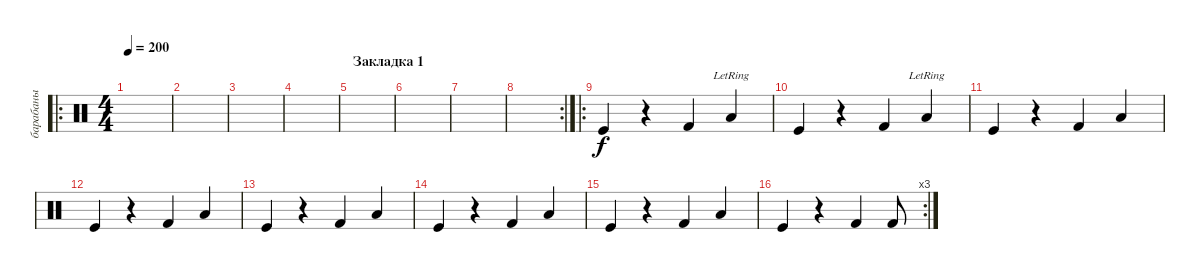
\track ("барабаны" "барабаны") {instrument percussion}
\staff {score}
\articulation defaults
\ro
\ts (4 4)
\tempo 200
\clef neutral
\ks c
|
|
|
|
\section ("" "Закладка 1")
|
|
|
\rc 2
|
\ro "Kick (hit)".4
r.4 "Kick (hit) 2".4 "Low Tom (hit)"{lr}.4 |
"Kick (hit)".4 r.4 "Kick (hit) 2".4 "Low Tom (hit)"{lr}.4 |
"Kick (hit)".4 r.4 "Kick (hit) 2".4 "Low Tom (hit)".4 |
"Kick (hit)".4 r.4 "Kick (hit) 2".4 "Low Tom (hit)".4 |
"Kick (hit)".4 r.4 "Kick (hit) 2".4 "Low Tom (hit)".4 |
"Kick (hit)".4 r.4 "Kick (hit) 2".4 "Low Tom (hit)".4 |
"Kick (hit)".4 r.4 "Kick (hit) 2".4 "Low Tom (hit)".4 |
\rc 3 "Kick (hit)".4
r.4 "Kick (hit) 2".4 "Kick (hit) 2".8
